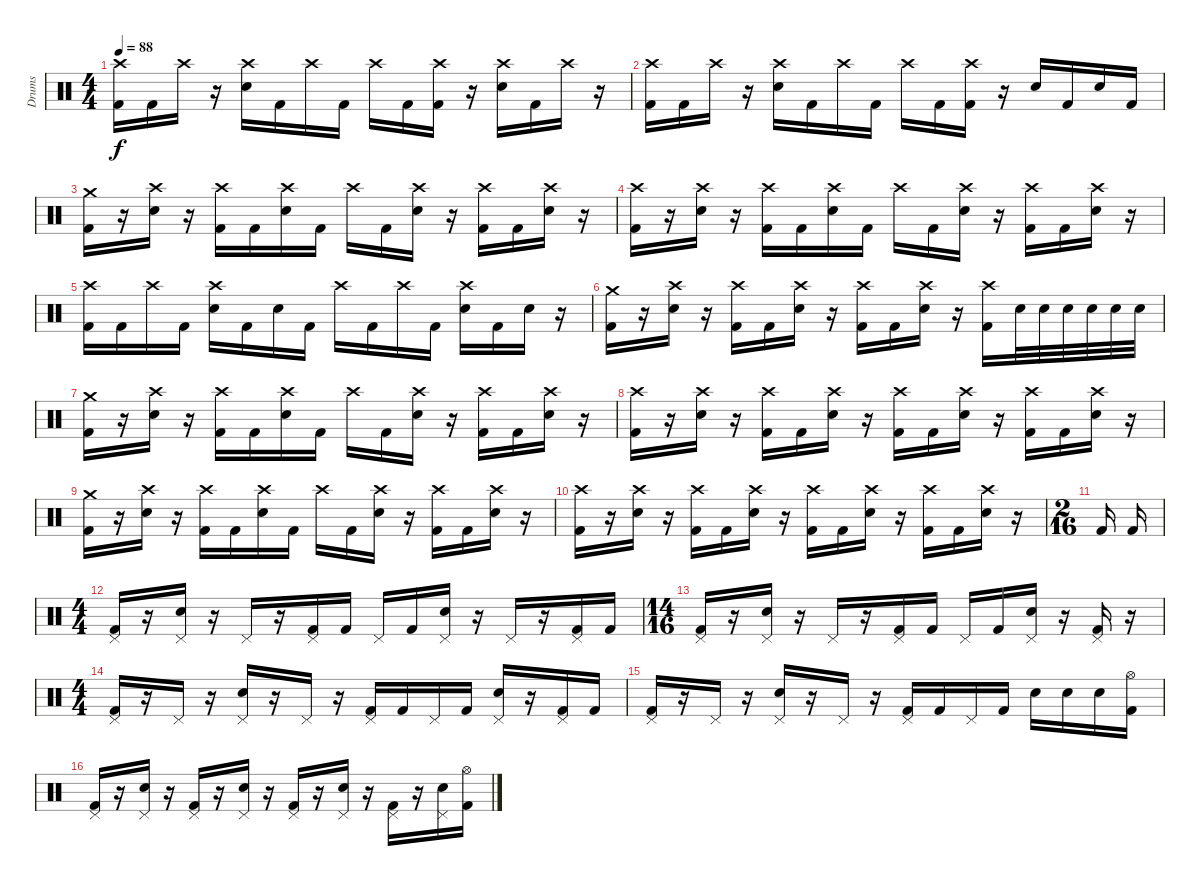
\track ("Drums" "Drums") {instrument percussion}
\staff {score}
\articulation defaults
\ts (4 4)
\tempo 88
\clef neutral
\ks c
("Crash high (hit)" "Kick (hit) 2").16{dy f} "Kick (hit) 2".16 "Crash high (hit)".16 r.16 ("Crash high (hit)" "Electric Snare (hit)").16 "Kick (hit) 2".16 "Crash high (hit)".16 "Kick (hit) 2".16 "Crash high (hit)".16 "Kick (hit) 2".16 ("Crash high (hit)" "Kick (hit) 2").16 r.16 ("Crash high (hit)" "Electric Snare (hit)").16 "Kick (hit) 2".16 "Crash high (hit)".16 r.16 |
("Crash high (hit)" "Kick (hit) 2").16 "Kick (hit) 2".16 "Crash high (hit)".16 r.16 ("Crash high (hit)" "Electric Snare (hit)").16 "Kick (hit) 2".16 "Crash high (hit)".16 "Kick (hit) 2".16 "Crash high (hit)".16 "Kick (hit) 2".16 ("Crash high (hit)" "Kick (hit) 2").16 r.16 "Electric Snare (hit)".16 "Kick (hit) 2".16 "Electric Snare (hit)".16 "Kick (hit) 2".16 |
("Crash medium (hit)" "Kick (hit) 2").16 r.16 ("Crash high (hit)" "Electric Snare (hit)").16 r.16 ("Crash high (hit)" "Kick (hit) 2").16 "Kick (hit) 2".16 ("Crash high (hit)" "Electric Snare (hit)").16 "Kick (hit) 2".16 "Crash high (hit)".16 "Kick (hit) 2".16 ("Crash high (hit)" "Electric Snare (hit)").16 r.16 ("Crash high (hit)" "Kick (hit) 2").16 "Kick (hit) 2".16 ("Crash high (hit)" "Electric Snare (hit)").16 r.16 |
("Crash high (hit)" "Kick (hit) 2").16 r.16 ("Crash high (hit)" "Electric Snare (hit)").16 r.16 ("Crash high (hit)" "Kick (hit) 2").16 "Kick (hit) 2".16 ("Crash high (hit)" "Electric Snare (hit)").16 "Kick (hit) 2".16 "Crash high (hit)".16 "Kick (hit) 2".16 ("Crash high (hit)" "Electric Snare (hit)").16 r.16 ("Crash high (hit)" "Kick (hit) 2").16 "Kick (hit) 2".16 ("Crash high (hit)" "Electric Snare (hit)").16 r.16 |
("Crash high (hit)" "Kick (hit) 2").16 "Kick (hit) 2".16 "Crash high (hit)".16 "Kick (hit) 2".16 ("Crash high (hit)" "Electric Snare (hit)").16 "Kick (hit) 2".16 "Electric Snare (hit)".16 "Kick (hit) 2".16 "Crash high (hit)".16 "Kick (hit) 2".16 "Crash high (hit)".16 "Kick (hit) 2".16 ("Crash high (hit)" "Electric Snare (hit)").16 "Kick (hit) 2".16 "Electric Snare (hit)".16 r.16 |
("Crash medium (hit)" "Kick (hit) 2").16 r.16 ("Crash high (hit)" "Electric Snare (hit)").16 r.16 ("Crash high (hit)" "Kick (hit) 2").16 "Kick (hit) 2".16 ("Crash high (hit)" "Electric Snare (hit)").16 r.16 ("Crash high (hit)" "Kick (hit) 2").16 "Kick (hit) 2".16 ("Crash high (hit)" "Electric Snare (hit)").16 r.16 ("Crash high (hit)" "Kick (hit) 2").16 "Electric Snare (hit)".32 "Electric Snare (hit)".32 "Electric Snare (hit)".32 "Electric Snare (hit)".32 "Electric Snare (hit)".32 "Electric Snare (hit)".32 |
("Crash medium (hit)" "Kick (hit) 2").16 r.16 ("Crash high (hit)" "Electric Snare (hit)").16 r.16 ("Crash high (hit)" "Kick (hit) 2").16 "Kick (hit) 2".16 ("Crash high (hit)" "Electric Snare (hit)").16 "Kick (hit) 2".16 "Crash high (hit)".16 "Kick (hit) 2".16 ("Crash high (hit)" "Electric Snare (hit)").16 r.16 ("Crash high (hit)" "Kick (hit) 2").16 "Kick (hit) 2".16 ("Crash high (hit)" "Electric Snare (hit)").16 r.16 |
("Crash high (hit)" "Kick (hit) 2").16 r.16 ("Crash high (hit)" "Electric Snare (hit)").16 r.16 ("Crash high (hit)" "Kick (hit) 2").16 "Kick (hit) 2".16 ("Crash high (hit)" "Electric Snare (hit)").16 r.16 ("Crash high (hit)" "Kick (hit) 2").16 "Kick (hit) 2".16 ("Crash high (hit)" "Electric Snare (hit)").16 r.16 ("Crash high (hit)" "Kick (hit) 2").16 "Kick (hit) 2".16 ("Crash high (hit)" "Electric Snare (hit)").16 r.16 |
("Crash medium (hit)" "Kick (hit) 2").16 r.16 ("Crash high (hit)" "Electric Snare (hit)").16 r.16 ("Crash high (hit)" "Kick (hit) 2").16 "Kick (hit) 2".16 ("Crash high (hit)" "Electric Snare (hit)").16 "Kick (hit) 2".16 "Crash high (hit)".16 "Kick (hit) 2".16 ("Crash high (hit)" "Electric Snare (hit)").16 r.16 ("Crash high (hit)" "Kick (hit) 2").16 "Kick (hit) 2".16 ("Crash high (hit)" "Electric Snare (hit)").16 r.16 |
("Crash high (hit)" "Kick (hit) 2").16 r.16 ("Crash high (hit)" "Electric Snare (hit)").16 r.16 ("Crash high (hit)" "Kick (hit) 2").16 "Kick (hit) 2".16 ("Crash high (hit)" "Electric Snare (hit)").16 r.16 ("Crash high (hit)" "Kick (hit) 2").16 "Kick (hit) 2".16 ("Crash high (hit)" "Electric Snare (hit)").16 r.16 ("Crash high (hit)" "Kick (hit) 2").16 "Kick (hit) 2".16 ("Crash high (hit)" "Electric Snare (hit)").16 r.16 |
\ts (2 16)
"Kick (hit) 2".16 "Kick (hit) 2".16 |
\ts (4 4)
("Pedal Hi-Hat (hit)" "Kick (hit) 2").16 r.16 ("Pedal Hi-Hat (hit)" "Electric Snare (hit)").16 r.16 "Pedal Hi-Hat (hit)".16 r.16 ("Pedal Hi-Hat (hit)" "Kick (hit) 2").16 "Kick (hit) 2".16 "Pedal Hi-Hat (hit)".16 "Kick (hit) 2".16 ("Pedal Hi-Hat (hit)" "Electric Snare (hit)").16 r.16 "Pedal Hi-Hat (hit)".16 r.16 ("Pedal Hi-Hat (hit)" "Kick (hit) 2").16 "Kick (hit) 2".16 |
\ts (14 16)
("Pedal Hi-Hat (hit)" "Kick (hit) 2").16 r.16 ("Pedal Hi-Hat (hit)" "Electric Snare (hit)").16 r.16 "Pedal Hi-Hat (hit)".16 r.16 ("Pedal Hi-Hat (hit)" "Kick (hit) 2").16 "Kick (hit) 2".16 "Pedal Hi-Hat (hit)".16 "Kick (hit) 2".16 ("Pedal Hi-Hat (hit)" "Electric Snare (hit)").16 r.16 ("Pedal Hi-Hat (hit)" "Kick (hit) 2").16 r.16 |
\ts (4 4)
("Pedal Hi-Hat (hit)" "Kick (hit) 2").16 r.16 "Pedal Hi-Hat (hit)".16 r.16 ("Pedal Hi-Hat (hit)" "Electric Snare (hit)").16 r.16 "Pedal Hi-Hat (hit)".16 r.16 ("Pedal Hi-Hat (hit)" "Kick (hit) 2").16 "Kick (hit) 2".16 "Pedal Hi-Hat (hit)".16 "Kick (hit) 2".16 ("Pedal Hi-Hat (hit)" "Electric Snare (hit)").16 r.16 ("Pedal Hi-Hat (hit)" "Kick (hit) 2").16 "Kick (hit) 2".16 |
("Pedal Hi-Hat (hit)" "Kick (hit) 2").16 r.16 "Pedal Hi-Hat (hit)".16 r.16 ("Pedal Hi-Hat (hit)" "Electric Snare (hit)").16 r.16 "Pedal Hi-Hat (hit)".16 r.16 ("Pedal Hi-Hat (hit)" "Kick (hit) 2").16 "Kick (hit) 2".16 "Pedal Hi-Hat (hit)".16 "Kick (hit) 2".16 "Electric Snare (hit)".16 "Electric Snare (hit)".16 "Electric Snare (hit)".16 ("Hi-Hat (open)" "Kick (hit) 2").16 |
("Pedal Hi-Hat (hit)" "Kick (hit) 2").16 r.16 ("Pedal Hi-Hat (hit)" "Electric Snare (hit)").16 r.16 ("Pedal Hi-Hat (hit)" "Kick (hit) 2").16 r.16 ("Pedal Hi-Hat (hit)" "Electric Snare (hit)").16 r.16 ("Pedal Hi-Hat (hit)" "Kick (hit) 2").16 r.16 ("Pedal Hi-Hat (hit)" "Electric Snare (hit)").16 r.16 ("Pedal Hi-Hat (hit)" "Kick (hit) 2").16 r.16 ("Pedal Hi-Hat (hit)" "Electric Snare (hit)").16 ("Hi-Hat (open)" "Kick (hit) 2").16
